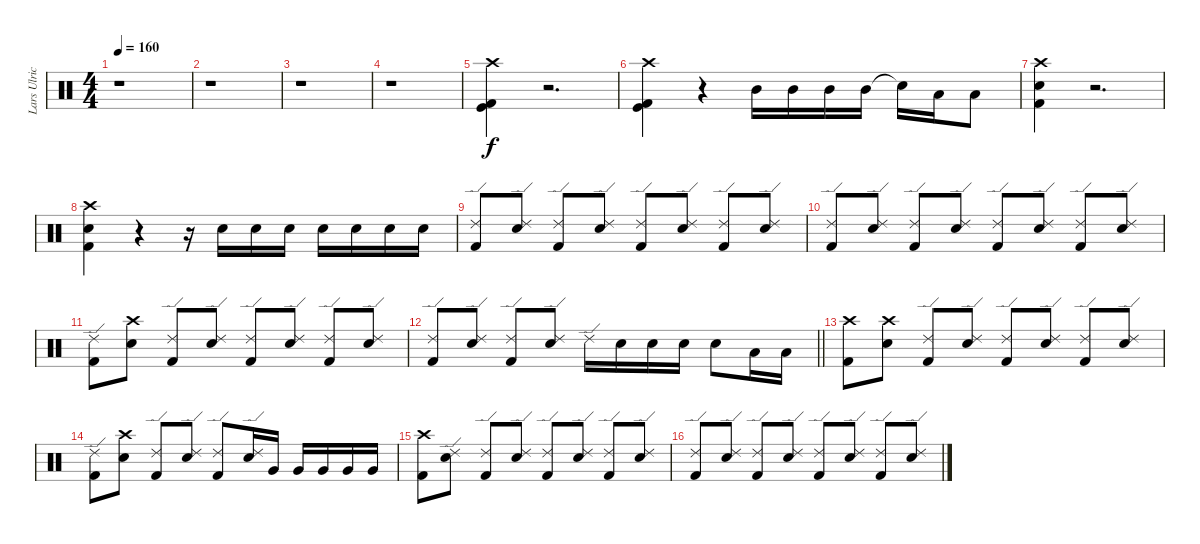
\track ("Lars Ulrich" "Lars Ulric") {instrument percussion}
\staff {score}
\articulation defaults
\ts (4 4)
\tempo 160
\clef neutral
\ks c
r.1{dy f} |
r.1 |
r.1 |
r.1 |
("Crash high (hit)" "Kick (hit) 2" "Kick (hit)").4 r.2{d} |
("Crash high (hit)" "Kick (hit) 2" "Kick (hit)").4 r.4 "Mid Tom (hit)".16 "Mid Tom (hit)".16 "Mid Tom (hit)".16 "Mid Tom (hit)".16 "Snare (hit)"{t}.16 "Low Tom (hit)".16 "Low Tom (hit)".8 |
("Kick (hit) 2" "Snare (hit) 2" "Crash high (hit)").4 r.2{d} |
("Kick (hit) 2" "Snare (hit) 2" "Crash high (hit)").4 r.4 r.16 "Electric Snare (hit)".16 "Electric Snare (hit)".16 "Electric Snare (hit)".16 "Electric Snare (hit)".16 "Electric Snare (hit)".16 "Electric Snare (hit)".16 "Electric Snare (hit)".16 |
("Ride (edge) 2" "Kick (hit) 2").8 ("Ride (edge) 2" "Electric Snare (hit)").8 ("Ride (edge) 2" "Kick (hit) 2").8 ("Ride (edge) 2" "Electric Snare (hit)").8 ("Ride (edge) 2" "Kick (hit) 2").8 ("Ride (edge) 2" "Electric Snare (hit)").8 ("Ride (edge) 2" "Kick (hit) 2").8 ("Ride (edge) 2" "Electric Snare (hit)").8 |
("Ride (edge) 2" "Kick (hit) 2").8 ("Ride (edge) 2" "Electric Snare (hit)").8 ("Ride (edge) 2" "Kick (hit) 2").8 ("Ride (edge) 2" "Electric Snare (hit)").8 ("Ride (edge) 2" "Kick (hit) 2").8 ("Ride (edge) 2" "Electric Snare (hit)").8 ("Ride (edge) 2" "Kick (hit) 2").8 ("Ride (edge) 2" "Electric Snare (hit)").8 |
("Ride (edge) 2" "Kick (hit) 2").8 ("Crash high (hit)" "Electric Snare (hit)").8 ("Ride (edge) 2" "Kick (hit) 2").8 ("Ride (edge) 2" "Electric Snare (hit)").8 ("Ride (edge) 2" "Kick (hit) 2").8 ("Ride (edge) 2" "Electric Snare (hit)").8 ("Ride (edge) 2" "Kick (hit) 2").8 ("Ride (edge) 2" "Electric Snare (hit)").8 |
\barLineRight lightlight
("Ride (edge) 2" "Kick (hit) 2").8 ("Ride (edge) 2" "Electric Snare (hit)").8 ("Ride (edge) 2" "Kick (hit) 2").8 ("Ride (edge) 2" "Electric Snare (hit)").8 "Ride (edge) 2".16 "Electric Snare (hit)".16 "Electric Snare (hit)".16 "Electric Snare (hit)".16 "Electric Snare (hit)".8 "Low Tom (hit)".16 "Low Tom (hit)".16 |
("Crash high (hit)" "Kick (hit) 2").8 ("Crash high (hit)" "Electric Snare (hit)").8 ("Ride (edge) 2" "Kick (hit) 2").8 ("Ride (edge) 2" "Electric Snare (hit)").8 ("Ride (edge) 2" "Kick (hit) 2").8 ("Ride (edge) 2" "Electric Snare (hit)").8 ("Ride (edge) 2" "Kick (hit) 2").8 ("Ride (edge) 2" "Electric Snare (hit)").8 |
("Ride (edge) 2" "Kick (hit) 2").8 ("Crash high (hit)" "Electric Snare (hit)").8 ("Ride (edge) 2" "Kick (hit) 2").8 ("Ride (edge) 2" "Electric Snare (hit)").8 ("Ride (edge) 2" "Kick (hit) 2").8 ("Ride (edge) 2" "Electric Snare (hit)").16 "Very Low Tom (hit)".16 "Very Low Tom (hit)".16 "Very Low Tom (hit)".16 "Very Low Tom (hit)".16 "Very Low Tom (hit)".16 |
("Crash high (hit)" "Kick (hit) 2").8 ("Ride (edge) 2" "Electric Snare (hit)").8 ("Ride (edge) 2" "Kick (hit) 2").8 ("Ride (edge) 2" "Electric Snare (hit)").8 ("Ride (edge) 2" "Kick (hit) 2").8 ("Ride (edge) 2" "Electric Snare (hit)").8 ("Ride (edge) 2" "Kick (hit) 2").8 ("Ride (edge) 2" "Electric Snare (hit)").8 |
("Ride (edge) 2" "Kick (hit) 2").8 ("Ride (edge) 2" "Electric Snare (hit)").8 ("Ride (edge) 2" "Kick (hit) 2").8 ("Ride (edge) 2" "Electric Snare (hit)").8 ("Ride (edge) 2" "Kick (hit) 2").8 ("Ride (edge) 2" "Electric Snare (hit)").8 ("Ride (edge) 2" "Kick (hit) 2").8 ("Ride (edge) 2" "Electric Snare (hit)").8
